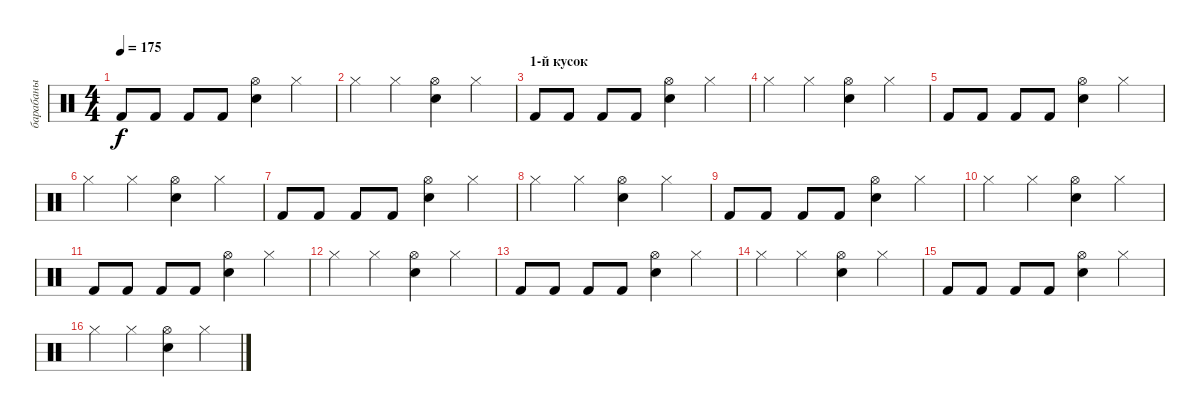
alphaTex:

\track ("барабаны" "барабаны") {instrument percussion}
\staff {score}
\articulation defaults
\ts (4 4)
\tempo 175
\clef neutral
\ks c "Kick (hit) 2".8{dy f} "Kick (hit) 2".8 "Kick (hit) 2".8 "Kick (hit) 2".8
("Hi-Hat (open)" "Snare (hit) 2").4 "Hi-Hat (closed)".4 |
"Hi-Hat (closed)".4 "Hi-Hat (closed)".4 ("Hi-Hat (open)" "Snare (hit) 2").4 "Hi-Hat (closed)".4 |
\section ("" "1-й кусок")
"Kick (hit) 2".8 "Kick (hit) 2".8 "Kick (hit) 2".8 "Kick (hit) 2".8 ("Hi-Hat (open)" "Snare (hit) 2").4 "Hi-Hat (closed)".4 |
"Hi-Hat (closed)".4 "Hi-Hat (closed)".4 ("Hi-Hat (open)" "Snare (hit) 2").4 "Hi-Hat (closed)".4 |
"Kick (hit) 2".8 "Kick (hit) 2".8 "Kick (hit) 2".8 "Kick (hit) 2".8 ("Hi-Hat (open)" "Snare (hit) 2").4 "Hi-Hat (closed)".4 |
"Hi-Hat (closed)".4 "Hi-Hat (closed)".4 ("Hi-Hat (open)" "Snare (hit) 2").4 "Hi-Hat (closed)".4 |
"Kick (hit) 2".8 "Kick (hit) 2".8 "Kick (hit) 2".8 "Kick (hit) 2".8 ("Hi-Hat (open)" "Snare (hit) 2").4 "Hi-Hat (closed)".4 |
"Hi-Hat (closed)".4 "Hi-Hat (closed)".4 ("Hi-Hat (open)" "Snare (hit) 2").4 "Hi-Hat (closed)".4 |
"Kick (hit) 2".8 "Kick (hit) 2".8 "Kick (hit) 2".8 "Kick (hit) 2".8 ("Hi-Hat (open)" "Snare (hit) 2").4 "Hi-Hat (closed)".4 |
"Hi-Hat (closed)".4 "Hi-Hat (closed)".4 ("Hi-Hat (open)" "Snare (hit) 2").4 "Hi-Hat (closed)".4 |
"Kick (hit) 2".8 "Kick (hit) 2".8 "Kick (hit) 2".8 "Kick (hit) 2".8 ("Hi-Hat (open)" "Snare (hit) 2").4 "Hi-Hat (closed)".4 |
"Hi-Hat (closed)".4 "Hi-Hat (closed)".4 ("Hi-Hat (open)" "Snare (hit) 2").4 "Hi-Hat (closed)".4 |
"Kick (hit) 2".8 "Kick (hit) 2".8 "Kick (hit) 2".8 "Kick (hit) 2".8 ("Hi-Hat (open)" "Snare (hit) 2").4 "Hi-Hat (closed)".4 |
"Hi-Hat (closed)".4 "Hi-Hat (closed)".4 ("Hi-Hat (open)" "Snare (hit) 2").4 "Hi-Hat (closed)".4 |
"Kick (hit) 2".8 "Kick (hit) 2".8 "Kick (hit) 2".8 "Kick (hit) 2".8 ("Hi-Hat (open)" "Snare (hit) 2").4 "Hi-Hat (closed)".4 |
"Hi-Hat (closed)".4 "Hi-Hat (closed)".4 ("Hi-Hat (open)" "Snare (hit) 2").4 "Hi-Hat (closed)".4
